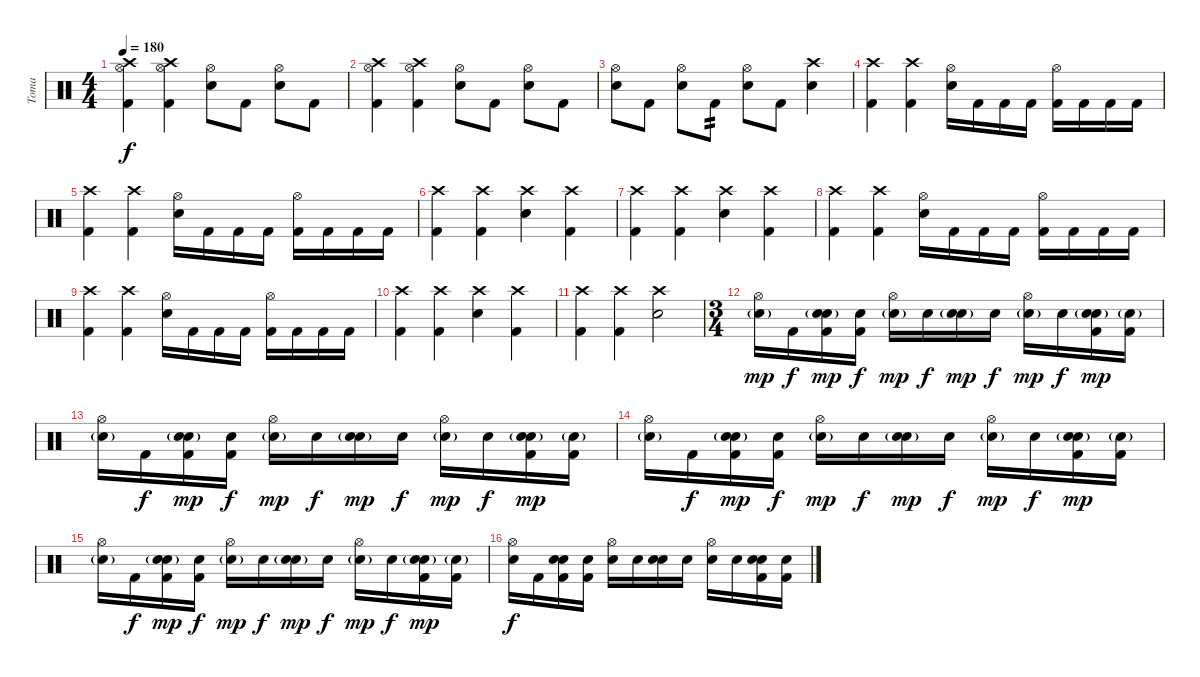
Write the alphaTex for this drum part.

\track ("Toma" "Toma") {instrument percussion}
\staff {score}
\articulation defaults
\ts (4 4)
\tempo 180
\clef neutral
\ks c
("Crash high (hit)" "Hi-Hat (open)" "Kick (hit) 2").4{dy f} ("Crash high (hit)" "Hi-Hat (open)" "Kick (hit) 2").4 ("Hi-Hat (open)" "Electric Snare (hit)").8 "Kick (hit) 2".8 ("Hi-Hat (open)" "Snare (hit)").8 "Kick (hit) 2".8 |
("Crash high (hit)" "Hi-Hat (open)" "Kick (hit) 2").4 ("Crash high (hit)" "Hi-Hat (open)" "Kick (hit) 2").4 ("Hi-Hat (open)" "Electric Snare (hit)").8 "Kick (hit) 2".8 ("Hi-Hat (open)" "Snare (hit)").8 "Kick (hit) 2".8 |
("Hi-Hat (open)" "Snare (hit)").8 "Kick (hit) 2".8 ("Hi-Hat (open)" "Snare (hit)").8 "Kick (hit) 2".8{tp 2} ("Hi-Hat (open)" "Electric Snare (hit)").8 "Kick (hit) 2".8 ("Crash high (hit)" "Electric Snare (hit)").4 |
("Crash high (hit)" "Kick (hit) 2").4 ("Crash high (hit)" "Kick (hit) 2").4 ("Hi-Hat (open)" "Electric Snare (hit)").16 "Kick (hit) 2".16 "Kick (hit) 2".16 "Kick (hit) 2".16 ("Hi-Hat (open)" "Kick (hit) 2").16 "Kick (hit) 2".16 "Kick (hit) 2".16 "Kick (hit) 2".16 |
("Crash high (hit)" "Kick (hit) 2").4 ("Crash high (hit)" "Kick (hit) 2").4 ("Hi-Hat (open)" "Electric Snare (hit)").16 "Kick (hit) 2".16 "Kick (hit) 2".16 "Kick (hit) 2".16 ("Hi-Hat (open)" "Kick (hit) 2").16 "Kick (hit) 2".16 "Kick (hit) 2".16 "Kick (hit) 2".16 |
("Crash high (hit)" "Kick (hit) 2").4 ("Crash high (hit)" "Kick (hit) 2").4 ("Crash high (hit)" "Electric Snare (hit)").4 ("Crash high (hit)" "Kick (hit) 2").4 |
("Crash high (hit)" "Kick (hit) 2").4 ("Crash high (hit)" "Kick (hit) 2").4 ("Crash high (hit)" "Electric Snare (hit)").4 ("Crash high (hit)" "Kick (hit) 2").4 |
("Crash high (hit)" "Kick (hit) 2").4 ("Crash high (hit)" "Kick (hit) 2").4 ("Hi-Hat (open)" "Electric Snare (hit)").16 "Kick (hit) 2".16 "Kick (hit) 2".16 "Kick (hit) 2".16 ("Hi-Hat (open)" "Kick (hit) 2").16 "Kick (hit) 2".16 "Kick (hit) 2".16 "Kick (hit) 2".16 |
("Crash high (hit)" "Kick (hit) 2").4 ("Crash high (hit)" "Kick (hit) 2").4 ("Hi-Hat (open)" "Electric Snare (hit)").16 "Kick (hit) 2".16 "Kick (hit) 2".16 "Kick (hit) 2".16 ("Hi-Hat (open)" "Kick (hit) 2").16 "Kick (hit) 2".16 "Kick (hit) 2".16 "Kick (hit) 2".16 |
("Crash high (hit)" "Kick (hit) 2").4 ("Crash high (hit)" "Kick (hit) 2").4 ("Crash high (hit)" "Electric Snare (hit)").4 ("Crash high (hit)" "Kick (hit) 2").4 |
("Crash high (hit)" "Kick (hit) 2").4 ("Crash high (hit)" "Kick (hit) 2").4 ("Crash high (hit)" "Electric Snare (hit)").2 |
\ts (3 4)
("Electric Snare (hit)"{g} "Hi-Hat (open)").16{dy mp} "Kick (hit) 2".16{dy f} ("Kick (hit) 2" "Electric Snare (hit)"{g} "Snare (hit)").16{dy mp} ("Kick (hit) 2" "Snare (hit)").16{dy f} ("Electric Snare (hit)"{g} "Hi-Hat (open)").16{dy mp} "Snare (hit)".16{dy f} ("Electric Snare (hit)"{g} "Snare (hit)").16{dy mp} "Snare (hit)".16{dy f} ("Electric Snare (hit)"{g} "Hi-Hat (open)").16{dy mp} "Snare (hit)".16{dy f} ("Kick (hit) 2" "Electric Snare (hit)"{g} "Snare (hit)").16{dy mp} ("Kick (hit) 2" "Snare (hit)"{g}).16 |
("Electric Snare (hit)"{g} "Hi-Hat (open)").16 "Kick (hit) 2".16{dy f} ("Kick (hit) 2" "Electric Snare (hit)"{g} "Snare (hit)").16{dy mp} ("Kick (hit) 2" "Snare (hit)").16{dy f} ("Electric Snare (hit)"{g} "Hi-Hat (open)").16{dy mp} "Snare (hit)".16{dy f} ("Electric Snare (hit)"{g} "Snare (hit)").16{dy mp} "Snare (hit)".16{dy f} ("Electric Snare (hit)"{g} "Hi-Hat (open)").16{dy mp} "Snare (hit)".16{dy f} ("Kick (hit) 2" "Electric Snare (hit)"{g} "Snare (hit)").16{dy mp} ("Kick (hit) 2" "Snare (hit)"{g}).16 |
("Electric Snare (hit)"{g} "Hi-Hat (open)").16 "Kick (hit) 2".16{dy f} ("Kick (hit) 2" "Electric Snare (hit)"{g} "Snare (hit)").16{dy mp} ("Kick (hit) 2" "Snare (hit)").16{dy f} ("Electric Snare (hit)"{g} "Hi-Hat (open)").16{dy mp} "Snare (hit)".16{dy f} ("Electric Snare (hit)"{g} "Snare (hit)").16{dy mp} "Snare (hit)".16{dy f} ("Electric Snare (hit)"{g} "Hi-Hat (open)").16{dy mp} "Snare (hit)".16{dy f} ("Kick (hit) 2" "Electric Snare (hit)"{g} "Snare (hit)").16{dy mp} ("Kick (hit) 2" "Snare (hit)"{g}).16 |
("Electric Snare (hit)"{g} "Hi-Hat (open)").16 "Kick (hit) 2".16{dy f} ("Kick (hit) 2" "Electric Snare (hit)"{g} "Snare (hit)").16{dy mp} ("Kick (hit) 2" "Snare (hit)").16{dy f} ("Electric Snare (hit)"{g} "Hi-Hat (open)").16{dy mp} "Snare (hit)".16{dy f} ("Electric Snare (hit)"{g} "Snare (hit)").16{dy mp} "Snare (hit)".16{dy f} ("Electric Snare (hit)"{g} "Hi-Hat (open)").16{dy mp} "Snare (hit)".16{dy f} ("Kick (hit) 2" "Electric Snare (hit)"{g} "Snare (hit)").16{dy mp} ("Kick (hit) 2" "Snare (hit)"{g}).16 |
("Electric Snare (hit)" "Hi-Hat (open)").16{dy f} "Kick (hit) 2".16 ("Kick (hit) 2" "Electric Snare (hit)" "Snare (hit)").16 ("Kick (hit) 2" "Snare (hit)").16 ("Electric Snare (hit)" "Hi-Hat (open)").16 "Snare (hit)".16 ("Electric Snare (hit)" "Snare (hit)").16 "Snare (hit)".16 ("Electric Snare (hit)" "Hi-Hat (open)").16 "Snare (hit)".16 ("Kick (hit) 2" "Electric Snare (hit)" "Snare (hit)").16 ("Kick (hit) 2" "Snare (hit)").16
